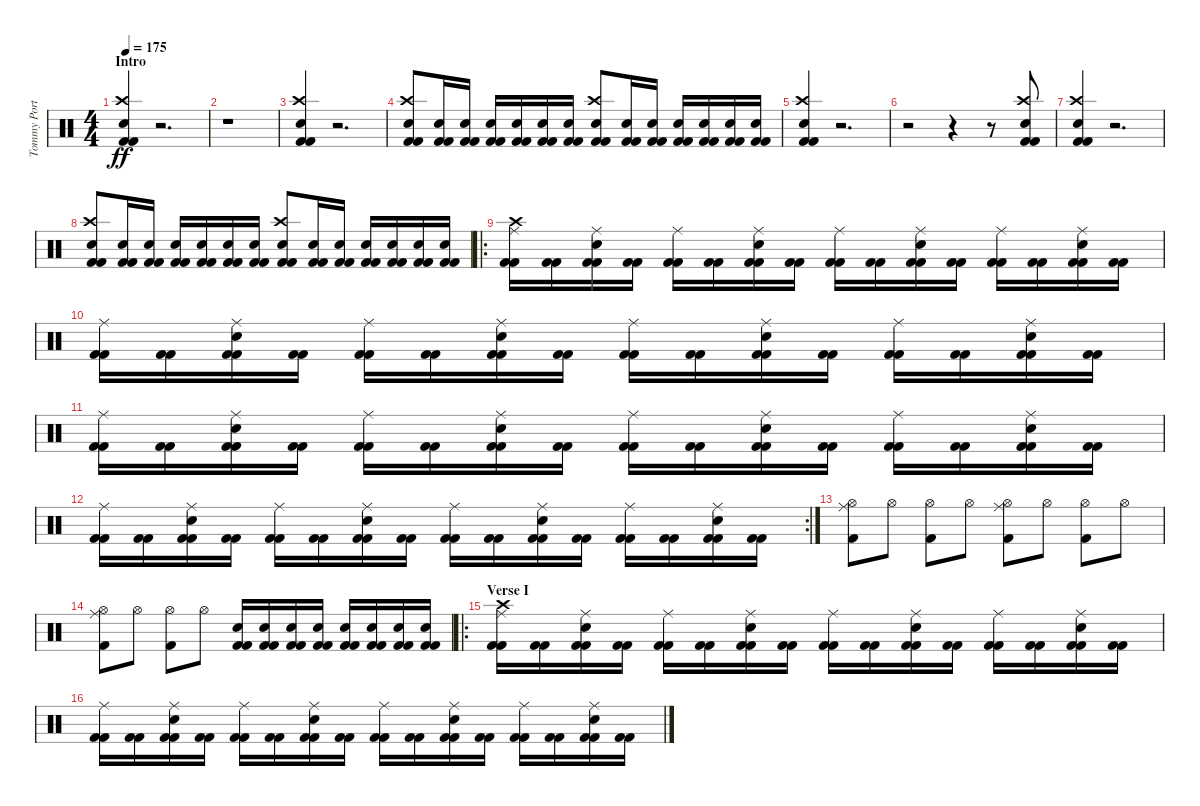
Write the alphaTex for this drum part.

\track ("Tommy Portimo" "Tommy Port") {instrument percussion}
\staff {score}
\articulation defaults
\ts (4 4)
\section ("" "Intro")
\tempo 175
\clef neutral
\ks c
("Kick (hit) 2" "Kick (hit) 2" "Crash high (hit)" "Electric Snare (hit)").4{dy ff} r.2{d} |
r.1 |
("Kick (hit) 2" "Kick (hit) 2" "Crash high (hit)" "Electric Snare (hit)").4 r.2{d} |
("Kick (hit) 2" "Kick (hit) 2" "Crash high (hit)" "Electric Snare (hit)").8 ("Kick (hit) 2" "Kick (hit) 2" "Electric Snare (hit)").16 ("Kick (hit) 2" "Kick (hit) 2" "Electric Snare (hit)").16 ("Kick (hit) 2" "Kick (hit) 2" "Electric Snare (hit)").16 ("Kick (hit) 2" "Kick (hit) 2" "Electric Snare (hit)").16 ("Kick (hit) 2" "Kick (hit) 2" "Electric Snare (hit)").16 ("Kick (hit) 2" "Kick (hit) 2" "Electric Snare (hit)").16 ("Kick (hit) 2" "Kick (hit) 2" "Crash high (hit)" "Electric Snare (hit)").8 ("Kick (hit) 2" "Kick (hit) 2" "Electric Snare (hit)").16 ("Kick (hit) 2" "Kick (hit) 2" "Electric Snare (hit)").16 ("Kick (hit) 2" "Kick (hit) 2" "Electric Snare (hit)").16 ("Kick (hit) 2" "Kick (hit) 2" "Electric Snare (hit)").16 ("Kick (hit) 2" "Kick (hit) 2" "Electric Snare (hit)").16 ("Kick (hit) 2" "Kick (hit) 2" "Electric Snare (hit)").16 |
("Kick (hit) 2" "Kick (hit) 2" "Crash high (hit)" "Electric Snare (hit)").4 r.2{d} |
r.2 r.4 r.8 ("Kick (hit) 2" "Kick (hit) 2" "Crash high (hit)" "Electric Snare (hit)").8 |
("Kick (hit) 2" "Kick (hit) 2" "Crash high (hit)" "Electric Snare (hit)").4 r.2{d} |
("Kick (hit) 2" "Kick (hit) 2" "Crash high (hit)" "Electric Snare (hit)").8 ("Kick (hit) 2" "Kick (hit) 2" "Electric Snare (hit)").16 ("Kick (hit) 2" "Kick (hit) 2" "Electric Snare (hit)").16 ("Kick (hit) 2" "Kick (hit) 2" "Electric Snare (hit)").16 ("Kick (hit) 2" "Kick (hit) 2" "Electric Snare (hit)").16 ("Kick (hit) 2" "Kick (hit) 2" "Electric Snare (hit)").16 ("Kick (hit) 2" "Kick (hit) 2" "Electric Snare (hit)").16 ("Kick (hit) 2" "Kick (hit) 2" "Crash high (hit)" "Electric Snare (hit)").8 ("Kick (hit) 2" "Kick (hit) 2" "Electric Snare (hit)").16 ("Kick (hit) 2" "Kick (hit) 2" "Electric Snare (hit)").16 ("Kick (hit) 2" "Kick (hit) 2" "Electric Snare (hit)").16 ("Kick (hit) 2" "Kick (hit) 2" "Electric Snare (hit)").16 ("Kick (hit) 2" "Kick (hit) 2" "Electric Snare (hit)").16 ("Kick (hit) 2" "Kick (hit) 2" "Electric Snare (hit)").16 |
\ro
("Kick (hit) 2" "Kick (hit) 2" "Ride (middle)" "Crash high (hit)").16 ("Kick (hit) 2" "Kick (hit) 2").16 ("Kick (hit) 2" "Kick (hit) 2" "Ride (middle)" "Electric Snare (hit)").16 ("Kick (hit) 2" "Kick (hit) 2").16 ("Kick (hit) 2" "Kick (hit) 2" "Ride (middle)").16 ("Kick (hit) 2" "Kick (hit) 2").16 ("Kick (hit) 2" "Kick (hit) 2" "Ride (middle)" "Electric Snare (hit)").16 ("Kick (hit) 2" "Kick (hit) 2").16 ("Kick (hit) 2" "Kick (hit) 2" "Ride (middle)").16 ("Kick (hit) 2" "Kick (hit) 2").16 ("Kick (hit) 2" "Kick (hit) 2" "Ride (middle)" "Electric Snare (hit)").16 ("Kick (hit) 2" "Kick (hit) 2").16 ("Kick (hit) 2" "Kick (hit) 2" "Ride (middle)").16 ("Kick (hit) 2" "Kick (hit) 2").16 ("Kick (hit) 2" "Kick (hit) 2" "Ride (middle)" "Electric Snare (hit)").16 ("Kick (hit) 2" "Kick (hit) 2").16 |
("Kick (hit) 2" "Kick (hit) 2" "Ride (middle)").16 ("Kick (hit) 2" "Kick (hit) 2").16 ("Kick (hit) 2" "Kick (hit) 2" "Ride (middle)" "Electric Snare (hit)").16 ("Kick (hit) 2" "Kick (hit) 2").16 ("Kick (hit) 2" "Kick (hit) 2" "Ride (middle)").16 ("Kick (hit) 2" "Kick (hit) 2").16 ("Kick (hit) 2" "Kick (hit) 2" "Ride (middle)" "Electric Snare (hit)").16 ("Kick (hit) 2" "Kick (hit) 2").16 ("Kick (hit) 2" "Kick (hit) 2" "Ride (middle)").16 ("Kick (hit) 2" "Kick (hit) 2").16 ("Kick (hit) 2" "Kick (hit) 2" "Ride (middle)" "Electric Snare (hit)").16 ("Kick (hit) 2" "Kick (hit) 2").16 ("Kick (hit) 2" "Kick (hit) 2" "Ride (middle)").16 ("Kick (hit) 2" "Kick (hit) 2").16 ("Kick (hit) 2" "Kick (hit) 2" "Ride (middle)" "Electric Snare (hit)").16 ("Kick (hit) 2" "Kick (hit) 2").16 |
("Kick (hit) 2" "Kick (hit) 2" "Ride (middle)").16 ("Kick (hit) 2" "Kick (hit) 2").16 ("Kick (hit) 2" "Kick (hit) 2" "Ride (middle)" "Electric Snare (hit)").16 ("Kick (hit) 2" "Kick (hit) 2").16 ("Kick (hit) 2" "Kick (hit) 2" "Ride (middle)").16 ("Kick (hit) 2" "Kick (hit) 2").16 ("Kick (hit) 2" "Kick (hit) 2" "Ride (middle)" "Electric Snare (hit)").16 ("Kick (hit) 2" "Kick (hit) 2").16 ("Kick (hit) 2" "Kick (hit) 2" "Ride (middle)").16 ("Kick (hit) 2" "Kick (hit) 2").16 ("Kick (hit) 2" "Kick (hit) 2" "Ride (middle)" "Electric Snare (hit)").16 ("Kick (hit) 2" "Kick (hit) 2").16 ("Kick (hit) 2" "Kick (hit) 2" "Ride (middle)").16 ("Kick (hit) 2" "Kick (hit) 2").16 ("Kick (hit) 2" "Kick (hit) 2" "Ride (middle)" "Electric Snare (hit)").16 ("Kick (hit) 2" "Kick (hit) 2").16 |
\rc 2
("Kick (hit) 2" "Kick (hit) 2" "Ride (middle)").16 ("Kick (hit) 2" "Kick (hit) 2").16 ("Kick (hit) 2" "Kick (hit) 2" "Ride (middle)" "Electric Snare (hit)").16 ("Kick (hit) 2" "Kick (hit) 2").16 ("Kick (hit) 2" "Kick (hit) 2" "Ride (middle)").16 ("Kick (hit) 2" "Kick (hit) 2").16 ("Kick (hit) 2" "Kick (hit) 2" "Ride (middle)" "Electric Snare (hit)").16 ("Kick (hit) 2" "Kick (hit) 2").16 ("Kick (hit) 2" "Kick (hit) 2" "Ride (middle)").16 ("Kick (hit) 2" "Kick (hit) 2").16 ("Kick (hit) 2" "Kick (hit) 2" "Ride (middle)" "Electric Snare (hit)").16 ("Kick (hit) 2" "Kick (hit) 2").16 ("Kick (hit) 2" "Kick (hit) 2" "Ride (middle)").16 ("Kick (hit) 2" "Kick (hit) 2").16 ("Kick (hit) 2" "Kick (hit) 2" "Ride (middle)" "Electric Snare (hit)").16 ("Kick (hit) 2" "Kick (hit) 2").16 |
("Kick (hit) 2" "Hi-Hat (open)" "Ride (middle)").8 "Hi-Hat (open)".8 ("Kick (hit) 2" "Hi-Hat (open)").8 "Hi-Hat (open)".8 ("Kick (hit) 2" "Hi-Hat (open)" "Ride (middle)").8 "Hi-Hat (open)".8 ("Kick (hit) 2" "Hi-Hat (open)").8 "Hi-Hat (open)".8 |
("Kick (hit) 2" "Hi-Hat (open)" "Ride (middle)").8 "Hi-Hat (open)".8 ("Kick (hit) 2" "Hi-Hat (open)").8 "Hi-Hat (open)".8 ("Kick (hit) 2" "Kick (hit) 2" "Electric Snare (hit)").16 ("Kick (hit) 2" "Kick (hit) 2" "Electric Snare (hit)").16 ("Kick (hit) 2" "Kick (hit) 2" "Electric Snare (hit)").16 ("Kick (hit) 2" "Kick (hit) 2" "Electric Snare (hit)").16 ("Kick (hit) 2" "Kick (hit) 2" "Electric Snare (hit)").16 ("Kick (hit) 2" "Kick (hit) 2" "Electric Snare (hit)").16 ("Kick (hit) 2" "Kick (hit) 2" "Electric Snare (hit)").16 ("Kick (hit) 2" "Kick (hit) 2" "Electric Snare (hit)").16 |
\ro
\section ("" "Verse I")
("Kick (hit) 2" "Kick (hit) 2" "Ride (middle)" "Crash high (hit)").16 ("Kick (hit) 2" "Kick (hit) 2").16 ("Kick (hit) 2" "Kick (hit) 2" "Ride (middle)" "Electric Snare (hit)").16 ("Kick (hit) 2" "Kick (hit) 2").16 ("Kick (hit) 2" "Kick (hit) 2" "Ride (middle)").16 ("Kick (hit) 2" "Kick (hit) 2").16 ("Kick (hit) 2" "Kick (hit) 2" "Ride (middle)" "Electric Snare (hit)").16 ("Kick (hit) 2" "Kick (hit) 2").16 ("Kick (hit) 2" "Kick (hit) 2" "Ride (middle)").16 ("Kick (hit) 2" "Kick (hit) 2").16 ("Kick (hit) 2" "Kick (hit) 2" "Ride (middle)" "Electric Snare (hit)").16 ("Kick (hit) 2" "Kick (hit) 2").16 ("Kick (hit) 2" "Kick (hit) 2" "Ride (middle)").16 ("Kick (hit) 2" "Kick (hit) 2").16 ("Kick (hit) 2" "Kick (hit) 2" "Ride (middle)" "Electric Snare (hit)").16 ("Kick (hit) 2" "Kick (hit) 2").16 |
("Kick (hit) 2" "Kick (hit) 2" "Ride (middle)").16 ("Kick (hit) 2" "Kick (hit) 2").16 ("Kick (hit) 2" "Kick (hit) 2" "Ride (middle)" "Electric Snare (hit)").16 ("Kick (hit) 2" "Kick (hit) 2").16 ("Kick (hit) 2" "Kick (hit) 2" "Ride (middle)").16 ("Kick (hit) 2" "Kick (hit) 2").16 ("Kick (hit) 2" "Kick (hit) 2" "Ride (middle)" "Electric Snare (hit)").16 ("Kick (hit) 2" "Kick (hit) 2").16 ("Kick (hit) 2" "Kick (hit) 2" "Ride (middle)").16 ("Kick (hit) 2" "Kick (hit) 2").16 ("Kick (hit) 2" "Kick (hit) 2" "Ride (middle)" "Electric Snare (hit)").16 ("Kick (hit) 2" "Kick (hit) 2").16 ("Kick (hit) 2" "Kick (hit) 2" "Ride (middle)").16 ("Kick (hit) 2" "Kick (hit) 2").16 ("Kick (hit) 2" "Kick (hit) 2" "Ride (middle)" "Electric Snare (hit)").16 ("Kick (hit) 2" "Kick (hit) 2").16
